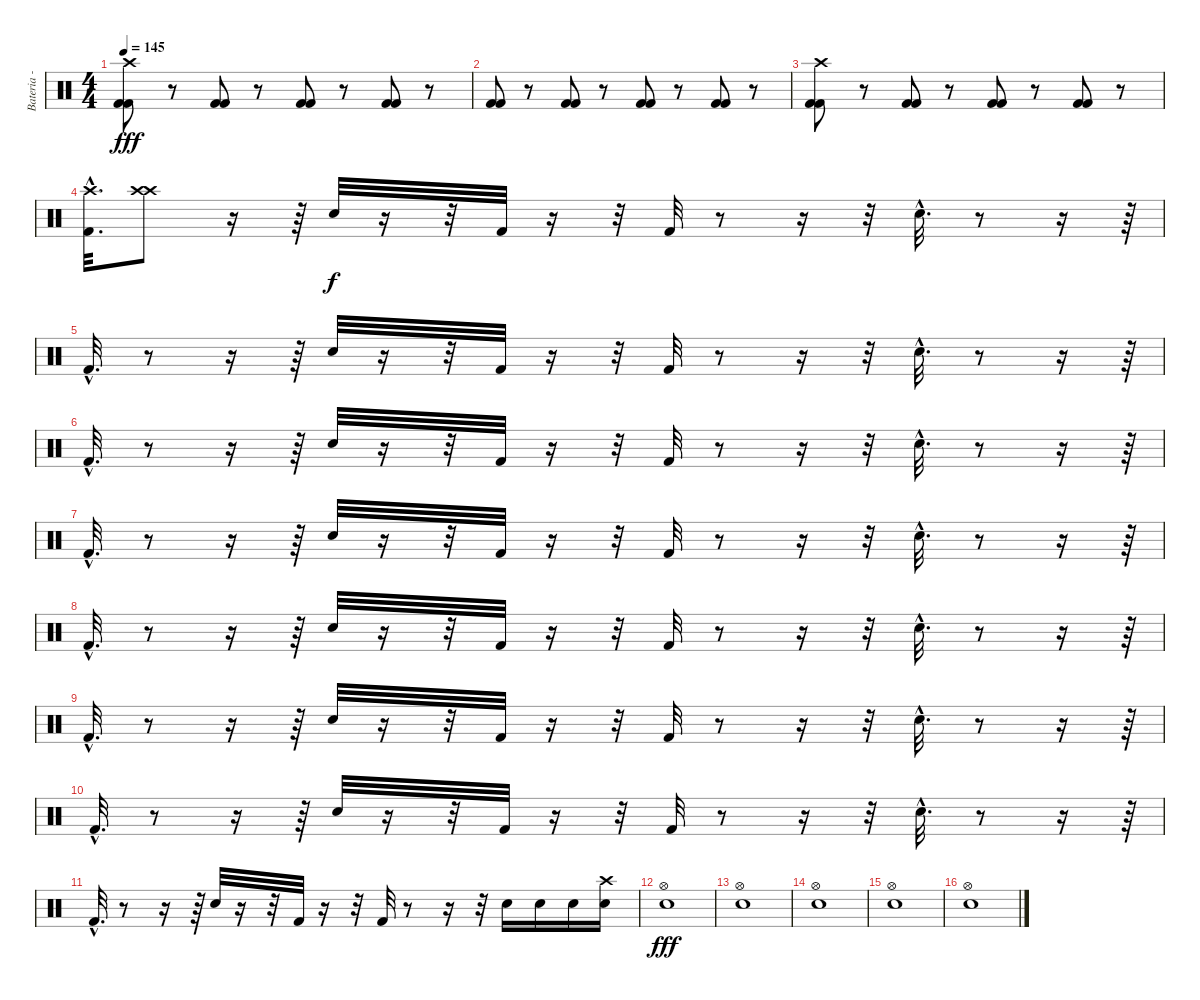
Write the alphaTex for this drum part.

\track ("Bateria - Larzon" "Bateria - ") {instrument percussion}
\staff {score}
\articulation defaults
\ts (4 4)
\tempo 145
\clef neutral
\ks c
("Kick (hit) 2" "Kick (hit) 2" "Crash high (hit)").8{dy fff} r.8 ("Kick (hit) 2" "Kick (hit) 2").8 r.8 ("Kick (hit) 2" "Kick (hit) 2").8 r.8 ("Kick (hit) 2" "Kick (hit) 2").8 r.8 |
("Kick (hit) 2" "Kick (hit) 2").8 r.8 ("Kick (hit) 2" "Kick (hit) 2").8 r.8 ("Kick (hit) 2" "Kick (hit) 2").8 r.8 ("Kick (hit) 2" "Kick (hit) 2").8 r.8 |
("Kick (hit) 2" "Kick (hit) 2" "Crash high (hit)").8 r.8 ("Kick (hit) 2" "Kick (hit) 2").8 r.8 ("Kick (hit) 2" "Kick (hit) 2").8 r.8 ("Kick (hit) 2" "Kick (hit) 2").8 r.8 |
("Kick (hit) 2"{hac} "Crash high (hit)"{hac}).32{d} ("Crash high (hit)" "Crash high (hit)").8 r.16 r.64 "Snare (hit) 2".32{dy f} r.16 r.32 "Kick (hit) 2".32 r.16 r.32 "Kick (hit) 2".32 r.8 r.16 r.32 "Snare (hit) 2"{hac}.32{d} r.8 r.16 r.64 |
"Kick (hit) 2"{hac}.32{d} r.8 r.16 r.64 "Snare (hit) 2".32 r.16 r.32 "Kick (hit) 2".32 r.16 r.32 "Kick (hit) 2".32 r.8 r.16 r.32 "Snare (hit) 2"{hac}.32{d} r.8 r.16 r.64 |
"Kick (hit) 2"{hac}.32{d} r.8 r.16 r.64 "Snare (hit) 2".32 r.16 r.32 "Kick (hit) 2".32 r.16 r.32 "Kick (hit) 2".32 r.8 r.16 r.32 "Snare (hit) 2"{hac}.32{d} r.8 r.16 r.64 |
"Kick (hit) 2"{hac}.32{d} r.8 r.16 r.64 "Snare (hit) 2".32 r.16 r.32 "Kick (hit) 2".32 r.16 r.32 "Kick (hit) 2".32 r.8 r.16 r.32 "Snare (hit) 2"{hac}.32{d} r.8 r.16 r.64 |
"Kick (hit) 2"{hac}.32{d} r.8 r.16 r.64 "Snare (hit) 2".32 r.16 r.32 "Kick (hit) 2".32 r.16 r.32 "Kick (hit) 2".32 r.8 r.16 r.32 "Snare (hit) 2"{hac}.32{d} r.8 r.16 r.64 |
"Kick (hit) 2"{hac}.32{d} r.8 r.16 r.64 "Snare (hit) 2".32 r.16 r.32 "Kick (hit) 2".32 r.16 r.32 "Kick (hit) 2".32 r.8 r.16 r.32 "Snare (hit) 2"{hac}.32{d} r.8 r.16 r.64 |
"Kick (hit) 2"{hac}.32{d} r.8 r.16 r.64 "Snare (hit) 2".32 r.16 r.32 "Kick (hit) 2".32 r.16 r.32 "Kick (hit) 2".32 r.8 r.16 r.32 "Snare (hit) 2"{hac}.32{d} r.8 r.16 r.64 |
"Kick (hit) 2"{hac}.32{d} r.8 r.16 r.64 "Snare (hit) 2".32 r.16 r.32 "Kick (hit) 2".32 r.16 r.32 "Kick (hit) 2".32 r.8 r.16 r.32 "Snare (hit) 2".16 "Snare (hit) 2".16 "Snare (hit) 2".16 ("Snare (hit) 2" "Crash high (hit)").16 |
("Hi-Hat (open)" "Electric Snare (hit)").1{dy fff} |
("Hi-Hat (open)" "Electric Snare (hit)").1 |
("Hi-Hat (open)" "Electric Snare (hit)").1 |
("Hi-Hat (open)" "Electric Snare (hit)").1 |
("Hi-Hat (open)" "Electric Snare (hit)").1
